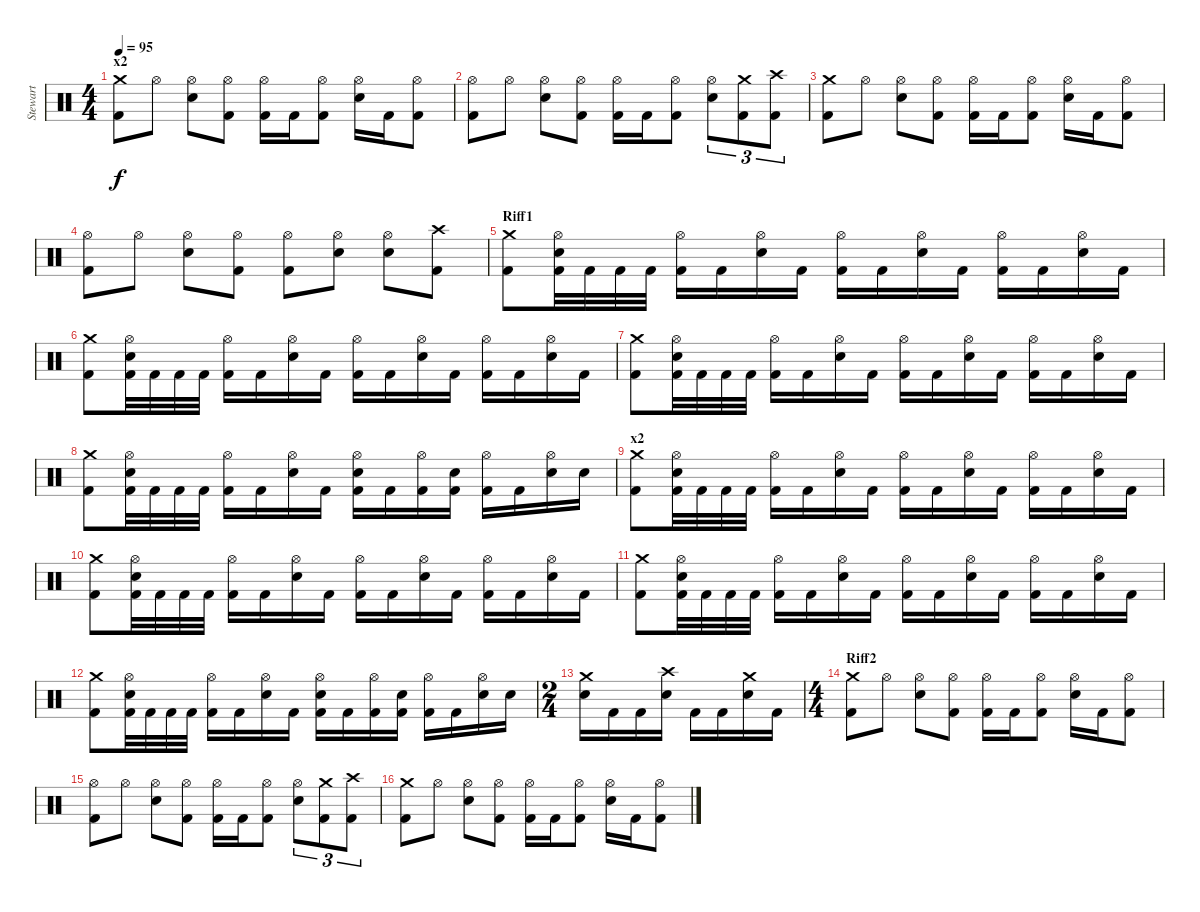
\track ("Stewart" "Stewart") {instrument percussion}
\staff {score}
\articulation defaults
\ts (4 4)
\section ("" "x2")
\tempo 95
\clef neutral
\ks c
("Crash medium (hit)" "Kick (hit) 2").8{dy f} "Hi-Hat (open)".8 ("Hi-Hat (open)" "Electric Snare (hit)").8 ("Hi-Hat (open)" "Kick (hit) 2").8 ("Hi-Hat (open)" "Kick (hit) 2").16 "Kick (hit) 2".16 ("Hi-Hat (open)" "Kick (hit) 2").8 ("Hi-Hat (open)" "Electric Snare (hit)").16 "Kick (hit) 2".16 ("Hi-Hat (open)" "Kick (hit) 2").8 |
("Hi-Hat (open)" "Kick (hit) 2").8 "Hi-Hat (open)".8 ("Hi-Hat (open)" "Electric Snare (hit)").8 ("Hi-Hat (open)" "Kick (hit) 2").8 ("Hi-Hat (open)" "Kick (hit) 2").16 "Kick (hit) 2".16 ("Hi-Hat (open)" "Kick (hit) 2").8 ("Hi-Hat (open)" "Electric Snare (hit)").8{tu (3 2)} ("Crash medium (hit)" "Kick (hit) 2").8{tu (3 2)} ("Crash high (hit)" "Kick (hit) 2").8{tu (3 2)} |
("Crash medium (hit)" "Kick (hit) 2").8 "Hi-Hat (open)".8 ("Hi-Hat (open)" "Electric Snare (hit)").8 ("Hi-Hat (open)" "Kick (hit) 2").8 ("Hi-Hat (open)" "Kick (hit) 2").16 "Kick (hit) 2".16 ("Hi-Hat (open)" "Kick (hit) 2").8 ("Hi-Hat (open)" "Electric Snare (hit)").16 "Kick (hit) 2".16 ("Hi-Hat (open)" "Kick (hit) 2").8 |
("Hi-Hat (open)" "Kick (hit) 2").8 "Hi-Hat (open)".8 ("Hi-Hat (open)" "Electric Snare (hit)").8 ("Hi-Hat (open)" "Kick (hit) 2").8 ("Hi-Hat (open)" "Kick (hit) 2").8 ("Hi-Hat (open)" "Electric Snare (hit)").8 ("Hi-Hat (open)" "Electric Snare (hit)").8 ("Crash high (hit)" "Kick (hit) 2").8 |
\section ("" "Riff1")
("Crash medium (hit)" "Kick (hit) 2").8 ("Hi-Hat (open)" "Electric Snare (hit)" "Kick (hit) 2").32 "Kick (hit) 2".32 "Kick (hit) 2".32 "Kick (hit) 2".32 ("Hi-Hat (open)" "Kick (hit) 2").16 "Kick (hit) 2".16 ("Hi-Hat (open)" "Electric Snare (hit)").16 "Kick (hit) 2".16 ("Hi-Hat (open)" "Kick (hit) 2").16 "Kick (hit) 2".16 ("Hi-Hat (open)" "Electric Snare (hit)").16 "Kick (hit) 2".16 ("Hi-Hat (open)" "Kick (hit) 2").16 "Kick (hit) 2".16 ("Hi-Hat (open)" "Electric Snare (hit)").16 "Kick (hit) 2".16 |
("Crash medium (hit)" "Kick (hit) 2").8 ("Hi-Hat (open)" "Electric Snare (hit)" "Kick (hit) 2").32 "Kick (hit) 2".32 "Kick (hit) 2".32 "Kick (hit) 2".32 ("Hi-Hat (open)" "Kick (hit) 2").16 "Kick (hit) 2".16 ("Hi-Hat (open)" "Electric Snare (hit)").16 "Kick (hit) 2".16 ("Hi-Hat (open)" "Kick (hit) 2").16 "Kick (hit) 2".16 ("Hi-Hat (open)" "Electric Snare (hit)").16 "Kick (hit) 2".16 ("Hi-Hat (open)" "Kick (hit) 2").16 "Kick (hit) 2".16 ("Hi-Hat (open)" "Electric Snare (hit)").16 "Kick (hit) 2".16 |
("Crash medium (hit)" "Kick (hit) 2").8 ("Hi-Hat (open)" "Electric Snare (hit)" "Kick (hit) 2").32 "Kick (hit) 2".32 "Kick (hit) 2".32 "Kick (hit) 2".32 ("Hi-Hat (open)" "Kick (hit) 2").16 "Kick (hit) 2".16 ("Hi-Hat (open)" "Electric Snare (hit)").16 "Kick (hit) 2".16 ("Hi-Hat (open)" "Kick (hit) 2").16 "Kick (hit) 2".16 ("Hi-Hat (open)" "Electric Snare (hit)").16 "Kick (hit) 2".16 ("Hi-Hat (open)" "Kick (hit) 2").16 "Kick (hit) 2".16 ("Hi-Hat (open)" "Electric Snare (hit)").16 "Kick (hit) 2".16 |
("Crash medium (hit)" "Kick (hit) 2").8 ("Hi-Hat (open)" "Electric Snare (hit)" "Kick (hit) 2").32 "Kick (hit) 2".32 "Kick (hit) 2".32 "Kick (hit) 2".32 ("Hi-Hat (open)" "Kick (hit) 2").16 "Kick (hit) 2".16 ("Hi-Hat (open)" "Electric Snare (hit)").16 "Kick (hit) 2".16 ("Hi-Hat (open)" "Electric Snare (hit)" "Kick (hit) 2").16 "Kick (hit) 2".16 ("Hi-Hat (open)" "Kick (hit) 2").16 ("Electric Snare (hit)" "Kick (hit) 2").16 ("Hi-Hat (open)" "Kick (hit) 2").16 "Kick (hit) 2".16 ("Hi-Hat (open)" "Electric Snare (hit)").16 "Electric Snare (hit)".16 |
\section ("" "x2")
("Crash medium (hit)" "Kick (hit) 2").8 ("Hi-Hat (open)" "Electric Snare (hit)" "Kick (hit) 2").32 "Kick (hit) 2".32 "Kick (hit) 2".32 "Kick (hit) 2".32 ("Hi-Hat (open)" "Kick (hit) 2").16 "Kick (hit) 2".16 ("Hi-Hat (open)" "Electric Snare (hit)").16 "Kick (hit) 2".16 ("Hi-Hat (open)" "Kick (hit) 2").16 "Kick (hit) 2".16 ("Hi-Hat (open)" "Electric Snare (hit)").16 "Kick (hit) 2".16 ("Hi-Hat (open)" "Kick (hit) 2").16 "Kick (hit) 2".16 ("Hi-Hat (open)" "Electric Snare (hit)").16 "Kick (hit) 2".16 |
("Crash medium (hit)" "Kick (hit) 2").8 ("Hi-Hat (open)" "Electric Snare (hit)" "Kick (hit) 2").32 "Kick (hit) 2".32 "Kick (hit) 2".32 "Kick (hit) 2".32 ("Hi-Hat (open)" "Kick (hit) 2").16 "Kick (hit) 2".16 ("Hi-Hat (open)" "Electric Snare (hit)").16 "Kick (hit) 2".16 ("Hi-Hat (open)" "Kick (hit) 2").16 "Kick (hit) 2".16 ("Hi-Hat (open)" "Electric Snare (hit)").16 "Kick (hit) 2".16 ("Hi-Hat (open)" "Kick (hit) 2").16 "Kick (hit) 2".16 ("Hi-Hat (open)" "Electric Snare (hit)").16 "Kick (hit) 2".16 |
("Crash medium (hit)" "Kick (hit) 2").8 ("Hi-Hat (open)" "Electric Snare (hit)" "Kick (hit) 2").32 "Kick (hit) 2".32 "Kick (hit) 2".32 "Kick (hit) 2".32 ("Hi-Hat (open)" "Kick (hit) 2").16 "Kick (hit) 2".16 ("Hi-Hat (open)" "Electric Snare (hit)").16 "Kick (hit) 2".16 ("Hi-Hat (open)" "Kick (hit) 2").16 "Kick (hit) 2".16 ("Hi-Hat (open)" "Electric Snare (hit)").16 "Kick (hit) 2".16 ("Hi-Hat (open)" "Kick (hit) 2").16 "Kick (hit) 2".16 ("Hi-Hat (open)" "Electric Snare (hit)").16 "Kick (hit) 2".16 |
("Crash medium (hit)" "Kick (hit) 2").8 ("Hi-Hat (open)" "Electric Snare (hit)" "Kick (hit) 2").32 "Kick (hit) 2".32 "Kick (hit) 2".32 "Kick (hit) 2".32 ("Hi-Hat (open)" "Kick (hit) 2").16 "Kick (hit) 2".16 ("Hi-Hat (open)" "Electric Snare (hit)").16 "Kick (hit) 2".16 ("Hi-Hat (open)" "Electric Snare (hit)" "Kick (hit) 2").16 "Kick (hit) 2".16 ("Hi-Hat (open)" "Kick (hit) 2").16 ("Electric Snare (hit)" "Kick (hit) 2").16 ("Hi-Hat (open)" "Kick (hit) 2").16 "Kick (hit) 2".16 ("Hi-Hat (open)" "Electric Snare (hit)").16 "Electric Snare (hit)".16 |
\ts (2 4)
("Crash medium (hit)" "Electric Snare (hit)").16 "Kick (hit) 2".16 "Kick (hit) 2".16 ("Crash high (hit)" "Electric Snare (hit)").16 "Kick (hit) 2".16 "Kick (hit) 2".16 ("Crash medium (hit)" "Electric Snare (hit)").16 "Kick (hit) 2".16 |
\ts (4 4)
\section ("" "Riff2")
("Crash medium (hit)" "Kick (hit) 2").8 "Hi-Hat (open)".8 ("Hi-Hat (open)" "Electric Snare (hit)").8 ("Hi-Hat (open)" "Kick (hit) 2").8 ("Hi-Hat (open)" "Kick (hit) 2").16 "Kick (hit) 2".16 ("Hi-Hat (open)" "Kick (hit) 2").8 ("Hi-Hat (open)" "Electric Snare (hit)").16 "Kick (hit) 2".16 ("Hi-Hat (open)" "Kick (hit) 2").8 |
("Hi-Hat (open)" "Kick (hit) 2").8 "Hi-Hat (open)".8 ("Hi-Hat (open)" "Electric Snare (hit)").8 ("Hi-Hat (open)" "Kick (hit) 2").8 ("Hi-Hat (open)" "Kick (hit) 2").16 "Kick (hit) 2".16 ("Hi-Hat (open)" "Kick (hit) 2").8 ("Hi-Hat (open)" "Electric Snare (hit)").8{tu (3 2)} ("Crash medium (hit)" "Kick (hit) 2").8{tu (3 2)} ("Crash high (hit)" "Kick (hit) 2").8{tu (3 2)} |
("Crash medium (hit)" "Kick (hit) 2").8 "Hi-Hat (open)".8 ("Hi-Hat (open)" "Electric Snare (hit)").8 ("Hi-Hat (open)" "Kick (hit) 2").8 ("Hi-Hat (open)" "Kick (hit) 2").16 "Kick (hit) 2".16 ("Hi-Hat (open)" "Kick (hit) 2").8 ("Hi-Hat (open)" "Electric Snare (hit)").16 "Kick (hit) 2".16 ("Hi-Hat (open)" "Kick (hit) 2").8
